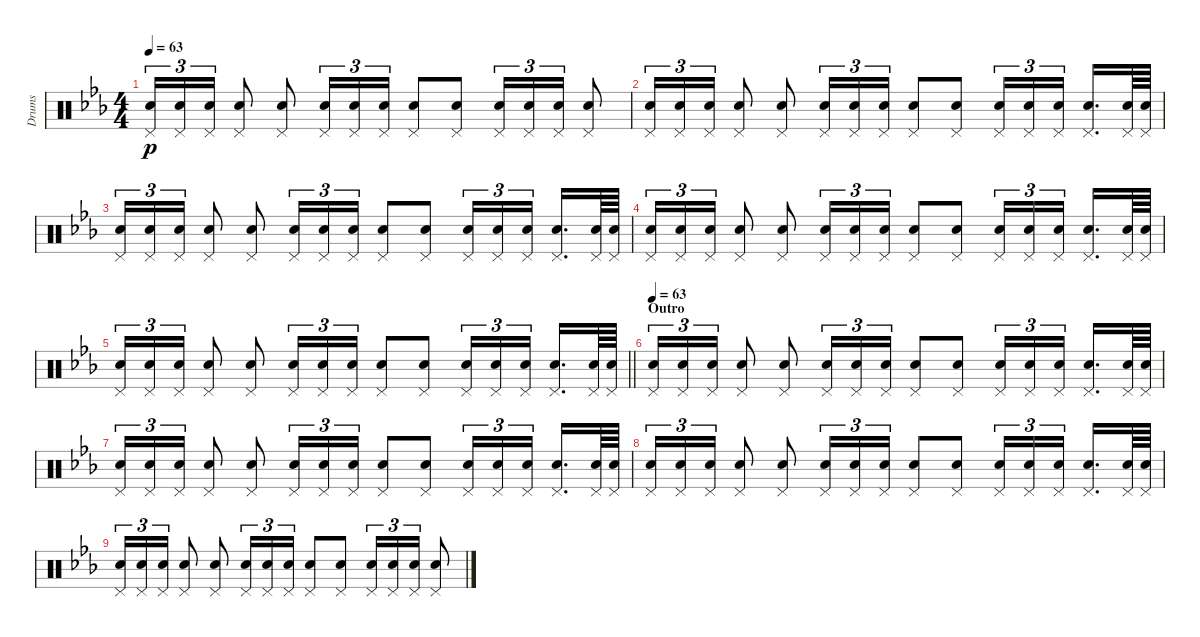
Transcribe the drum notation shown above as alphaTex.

\track ("Drums" "Drums") {instrument percussion}
\staff {score}
\articulation defaults
\ts (4 4)
\tempo 63
\clef neutral
\ks eb
("Pedal Hi-Hat (hit)" "Electric Snare (hit)").16{tu (3 2) dy p} ("Pedal Hi-Hat (hit)" "Electric Snare (hit)").16{tu (3 2)} ("Pedal Hi-Hat (hit)" "Electric Snare (hit)").16{tu (3 2)} ("Pedal Hi-Hat (hit)" "Electric Snare (hit)").8 ("Pedal Hi-Hat (hit)" "Electric Snare (hit)").8 ("Pedal Hi-Hat (hit)" "Electric Snare (hit)").16{tu (3 2)} ("Pedal Hi-Hat (hit)" "Electric Snare (hit)").16{tu (3 2)} ("Pedal Hi-Hat (hit)" "Electric Snare (hit)").16{tu (3 2)} ("Pedal Hi-Hat (hit)" "Electric Snare (hit)").8 ("Pedal Hi-Hat (hit)" "Electric Snare (hit)").8 ("Pedal Hi-Hat (hit)" "Electric Snare (hit)").16{tu (3 2)} ("Pedal Hi-Hat (hit)" "Electric Snare (hit)").16{tu (3 2)} ("Pedal Hi-Hat (hit)" "Electric Snare (hit)").16{tu (3 2)} ("Pedal Hi-Hat (hit)" "Electric Snare (hit)").8 |
("Pedal Hi-Hat (hit)" "Electric Snare (hit)").16{tu (3 2)} ("Pedal Hi-Hat (hit)" "Electric Snare (hit)").16{tu (3 2)} ("Pedal Hi-Hat (hit)" "Electric Snare (hit)").16{tu (3 2)} ("Pedal Hi-Hat (hit)" "Electric Snare (hit)").8 ("Pedal Hi-Hat (hit)" "Electric Snare (hit)").8 ("Pedal Hi-Hat (hit)" "Electric Snare (hit)").16{tu (3 2)} ("Pedal Hi-Hat (hit)" "Electric Snare (hit)").16{tu (3 2)} ("Pedal Hi-Hat (hit)" "Electric Snare (hit)").16{tu (3 2)} ("Pedal Hi-Hat (hit)" "Electric Snare (hit)").8 ("Pedal Hi-Hat (hit)" "Electric Snare (hit)").8 ("Pedal Hi-Hat (hit)" "Electric Snare (hit)").16{tu (3 2)} ("Pedal Hi-Hat (hit)" "Electric Snare (hit)").16{tu (3 2)} ("Pedal Hi-Hat (hit)" "Electric Snare (hit)").16{tu (3 2) beam splitsecondary} ("Pedal Hi-Hat (hit)" "Electric Snare (hit)").16{d} ("Pedal Hi-Hat (hit)" "Electric Snare (hit)").64 ("Pedal Hi-Hat (hit)" "Electric Snare (hit)").64 |
("Pedal Hi-Hat (hit)" "Electric Snare (hit)").16{tu (3 2)} ("Pedal Hi-Hat (hit)" "Electric Snare (hit)").16{tu (3 2)} ("Pedal Hi-Hat (hit)" "Electric Snare (hit)").16{tu (3 2)} ("Pedal Hi-Hat (hit)" "Electric Snare (hit)").8 ("Pedal Hi-Hat (hit)" "Electric Snare (hit)").8 ("Pedal Hi-Hat (hit)" "Electric Snare (hit)").16{tu (3 2)} ("Pedal Hi-Hat (hit)" "Electric Snare (hit)").16{tu (3 2)} ("Pedal Hi-Hat (hit)" "Electric Snare (hit)").16{tu (3 2)} ("Pedal Hi-Hat (hit)" "Electric Snare (hit)").8 ("Pedal Hi-Hat (hit)" "Electric Snare (hit)").8 ("Pedal Hi-Hat (hit)" "Electric Snare (hit)").16{tu (3 2)} ("Pedal Hi-Hat (hit)" "Electric Snare (hit)").16{tu (3 2)} ("Pedal Hi-Hat (hit)" "Electric Snare (hit)").16{tu (3 2) beam splitsecondary} ("Pedal Hi-Hat (hit)" "Electric Snare (hit)").16{d} ("Pedal Hi-Hat (hit)" "Electric Snare (hit)").64 ("Pedal Hi-Hat (hit)" "Electric Snare (hit)").64 |
("Pedal Hi-Hat (hit)" "Electric Snare (hit)").16{tu (3 2)} ("Pedal Hi-Hat (hit)" "Electric Snare (hit)").16{tu (3 2)} ("Pedal Hi-Hat (hit)" "Electric Snare (hit)").16{tu (3 2)} ("Pedal Hi-Hat (hit)" "Electric Snare (hit)").8 ("Pedal Hi-Hat (hit)" "Electric Snare (hit)").8 ("Pedal Hi-Hat (hit)" "Electric Snare (hit)").16{tu (3 2)} ("Pedal Hi-Hat (hit)" "Electric Snare (hit)").16{tu (3 2)} ("Pedal Hi-Hat (hit)" "Electric Snare (hit)").16{tu (3 2)} ("Pedal Hi-Hat (hit)" "Electric Snare (hit)").8 ("Pedal Hi-Hat (hit)" "Electric Snare (hit)").8 ("Pedal Hi-Hat (hit)" "Electric Snare (hit)").16{tu (3 2)} ("Pedal Hi-Hat (hit)" "Electric Snare (hit)").16{tu (3 2)} ("Pedal Hi-Hat (hit)" "Electric Snare (hit)").16{tu (3 2) beam splitsecondary} ("Pedal Hi-Hat (hit)" "Electric Snare (hit)").16{d} ("Pedal Hi-Hat (hit)" "Electric Snare (hit)").64 ("Pedal Hi-Hat (hit)" "Electric Snare (hit)").64 |
\barLineRight lightlight
("Pedal Hi-Hat (hit)" "Electric Snare (hit)").16{tu (3 2)} ("Pedal Hi-Hat (hit)" "Electric Snare (hit)").16{tu (3 2)} ("Pedal Hi-Hat (hit)" "Electric Snare (hit)").16{tu (3 2)} ("Pedal Hi-Hat (hit)" "Electric Snare (hit)").8 ("Pedal Hi-Hat (hit)" "Electric Snare (hit)").8 ("Pedal Hi-Hat (hit)" "Electric Snare (hit)").16{tu (3 2)} ("Pedal Hi-Hat (hit)" "Electric Snare (hit)").16{tu (3 2)} ("Pedal Hi-Hat (hit)" "Electric Snare (hit)").16{tu (3 2)} ("Pedal Hi-Hat (hit)" "Electric Snare (hit)").8 ("Pedal Hi-Hat (hit)" "Electric Snare (hit)").8 ("Pedal Hi-Hat (hit)" "Electric Snare (hit)").16{tu (3 2)} ("Pedal Hi-Hat (hit)" "Electric Snare (hit)").16{tu (3 2)} ("Pedal Hi-Hat (hit)" "Electric Snare (hit)").16{tu (3 2) beam splitsecondary} ("Pedal Hi-Hat (hit)" "Electric Snare (hit)").16{d} ("Pedal Hi-Hat (hit)" "Electric Snare (hit)").64 ("Pedal Hi-Hat (hit)" "Electric Snare (hit)").64 |
\section ("" "Outro")
\tempo 63
("Pedal Hi-Hat (hit)" "Electric Snare (hit)").16{tu (3 2)} ("Pedal Hi-Hat (hit)" "Electric Snare (hit)").16{tu (3 2)} ("Pedal Hi-Hat (hit)" "Electric Snare (hit)").16{tu (3 2)} ("Pedal Hi-Hat (hit)" "Electric Snare (hit)").8 ("Pedal Hi-Hat (hit)" "Electric Snare (hit)").8 ("Pedal Hi-Hat (hit)" "Electric Snare (hit)").16{tu (3 2)} ("Pedal Hi-Hat (hit)" "Electric Snare (hit)").16{tu (3 2)} ("Pedal Hi-Hat (hit)" "Electric Snare (hit)").16{tu (3 2)} ("Pedal Hi-Hat (hit)" "Electric Snare (hit)").8 ("Pedal Hi-Hat (hit)" "Electric Snare (hit)").8 ("Pedal Hi-Hat (hit)" "Electric Snare (hit)").16{tu (3 2)} ("Pedal Hi-Hat (hit)" "Electric Snare (hit)").16{tu (3 2)} ("Pedal Hi-Hat (hit)" "Electric Snare (hit)").16{tu (3 2) beam splitsecondary} ("Pedal Hi-Hat (hit)" "Electric Snare (hit)").16{d} ("Pedal Hi-Hat (hit)" "Electric Snare (hit)").64 ("Pedal Hi-Hat (hit)" "Electric Snare (hit)").64 |
("Pedal Hi-Hat (hit)" "Electric Snare (hit)").16{tu (3 2)} ("Pedal Hi-Hat (hit)" "Electric Snare (hit)").16{tu (3 2)} ("Pedal Hi-Hat (hit)" "Electric Snare (hit)").16{tu (3 2)} ("Pedal Hi-Hat (hit)" "Electric Snare (hit)").8 ("Pedal Hi-Hat (hit)" "Electric Snare (hit)").8 ("Pedal Hi-Hat (hit)" "Electric Snare (hit)").16{tu (3 2)} ("Pedal Hi-Hat (hit)" "Electric Snare (hit)").16{tu (3 2)} ("Pedal Hi-Hat (hit)" "Electric Snare (hit)").16{tu (3 2)} ("Pedal Hi-Hat (hit)" "Electric Snare (hit)").8 ("Pedal Hi-Hat (hit)" "Electric Snare (hit)").8 ("Pedal Hi-Hat (hit)" "Electric Snare (hit)").16{tu (3 2)} ("Pedal Hi-Hat (hit)" "Electric Snare (hit)").16{tu (3 2)} ("Pedal Hi-Hat (hit)" "Electric Snare (hit)").16{tu (3 2) beam splitsecondary} ("Pedal Hi-Hat (hit)" "Electric Snare (hit)").16{d} ("Pedal Hi-Hat (hit)" "Electric Snare (hit)").64 ("Pedal Hi-Hat (hit)" "Electric Snare (hit)").64 |
("Pedal Hi-Hat (hit)" "Electric Snare (hit)").16{tu (3 2) volume 0} ("Pedal Hi-Hat (hit)" "Electric Snare (hit)").16{tu (3 2)} ("Pedal Hi-Hat (hit)" "Electric Snare (hit)").16{tu (3 2)} ("Pedal Hi-Hat (hit)" "Electric Snare (hit)").8 ("Pedal Hi-Hat (hit)" "Electric Snare (hit)").8 ("Pedal Hi-Hat (hit)" "Electric Snare (hit)").16{tu (3 2)} ("Pedal Hi-Hat (hit)" "Electric Snare (hit)").16{tu (3 2)} ("Pedal Hi-Hat (hit)" "Electric Snare (hit)").16{tu (3 2)} ("Pedal Hi-Hat (hit)" "Electric Snare (hit)").8 ("Pedal Hi-Hat (hit)" "Electric Snare (hit)").8 ("Pedal Hi-Hat (hit)" "Electric Snare (hit)").16{tu (3 2)} ("Pedal Hi-Hat (hit)" "Electric Snare (hit)").16{tu (3 2)} ("Pedal Hi-Hat (hit)" "Electric Snare (hit)").16{tu (3 2) beam splitsecondary} ("Pedal Hi-Hat (hit)" "Electric Snare (hit)").16{d} ("Pedal Hi-Hat (hit)" "Electric Snare (hit)").64 ("Pedal Hi-Hat (hit)" "Electric Snare (hit)").64 |
("Pedal Hi-Hat (hit)" "Electric Snare (hit)").16{tu (3 2)} ("Pedal Hi-Hat (hit)" "Electric Snare (hit)").16{tu (3 2)} ("Pedal Hi-Hat (hit)" "Electric Snare (hit)").16{tu (3 2)} ("Pedal Hi-Hat (hit)" "Electric Snare (hit)").8 ("Pedal Hi-Hat (hit)" "Electric Snare (hit)").8 ("Pedal Hi-Hat (hit)" "Electric Snare (hit)").16{tu (3 2)} ("Pedal Hi-Hat (hit)" "Electric Snare (hit)").16{tu (3 2)} ("Pedal Hi-Hat (hit)" "Electric Snare (hit)").16{tu (3 2)} ("Pedal Hi-Hat (hit)" "Electric Snare (hit)").8 ("Pedal Hi-Hat (hit)" "Electric Snare (hit)").8 ("Pedal Hi-Hat (hit)" "Electric Snare (hit)").16{tu (3 2)} ("Pedal Hi-Hat (hit)" "Electric Snare (hit)").16{tu (3 2)} ("Pedal Hi-Hat (hit)" "Electric Snare (hit)").16{tu (3 2)} ("Pedal Hi-Hat (hit)" "Electric Snare (hit)").8
